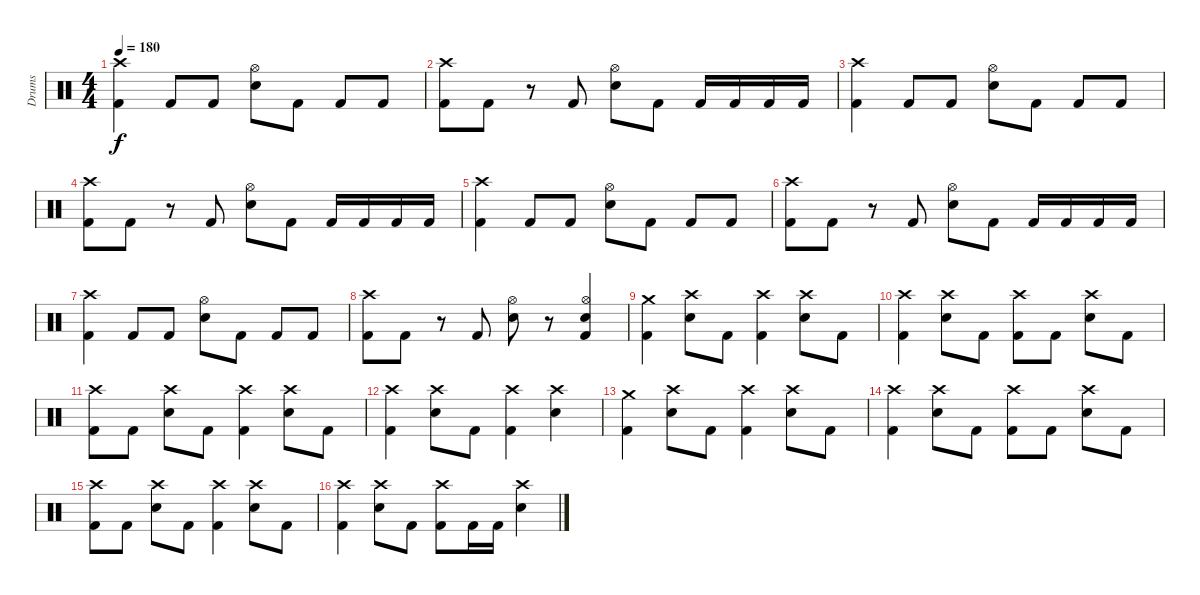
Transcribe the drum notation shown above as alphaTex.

\track ("Drums" "Drums") {instrument percussion}
\staff {score}
\articulation defaults
\ts (4 4)
\tempo 180
\clef neutral
\ks c
("Crash high (hit)" "Kick (hit) 2").4{dy f} "Kick (hit) 2".8 "Kick (hit) 2".8 ("Hi-Hat (open)" "Snare (hit) 2").8 "Kick (hit) 2".8 "Kick (hit) 2".8 "Kick (hit) 2".8 |
("Crash high (hit)" "Kick (hit) 2").8 "Kick (hit) 2".8 r.8 "Kick (hit) 2".8 ("Hi-Hat (open)" "Snare (hit) 2").8 "Kick (hit) 2".8 "Kick (hit) 2".16 "Kick (hit) 2".16 "Kick (hit) 2".16 "Kick (hit) 2".16 |
("Crash high (hit)" "Kick (hit) 2").4 "Kick (hit) 2".8 "Kick (hit) 2".8 ("Hi-Hat (open)" "Snare (hit) 2").8 "Kick (hit) 2".8 "Kick (hit) 2".8 "Kick (hit) 2".8 |
("Crash high (hit)" "Kick (hit) 2").8 "Kick (hit) 2".8 r.8 "Kick (hit) 2".8 ("Hi-Hat (open)" "Snare (hit) 2").8 "Kick (hit) 2".8 "Kick (hit) 2".16 "Kick (hit) 2".16 "Kick (hit) 2".16 "Kick (hit) 2".16 |
("Crash high (hit)" "Kick (hit) 2").4 "Kick (hit) 2".8 "Kick (hit) 2".8 ("Hi-Hat (open)" "Snare (hit) 2").8 "Kick (hit) 2".8 "Kick (hit) 2".8 "Kick (hit) 2".8 |
("Crash high (hit)" "Kick (hit) 2").8 "Kick (hit) 2".8 r.8 "Kick (hit) 2".8 ("Hi-Hat (open)" "Snare (hit) 2").8 "Kick (hit) 2".8 "Kick (hit) 2".16 "Kick (hit) 2".16 "Kick (hit) 2".16 "Kick (hit) 2".16 |
("Crash high (hit)" "Kick (hit) 2").4 "Kick (hit) 2".8 "Kick (hit) 2".8 ("Hi-Hat (open)" "Snare (hit) 2").8 "Kick (hit) 2".8 "Kick (hit) 2".8 "Kick (hit) 2".8 |
("Crash high (hit)" "Kick (hit) 2").8 "Kick (hit) 2".8 r.8 "Kick (hit) 2".8 ("Hi-Hat (open)" "Snare (hit) 2").8 r.8 ("Hi-Hat (open)" "Snare (hit) 2" "Kick (hit) 2").4 |
("Crash medium (hit)" "Kick (hit) 2").4 ("Crash high (hit)" "Snare (hit) 2").8 "Kick (hit) 2".8 ("Crash high (hit)" "Kick (hit) 2").4 ("Crash high (hit)" "Snare (hit) 2").8 "Kick (hit) 2".8 |
("Crash high (hit)" "Kick (hit) 2").4 ("Crash high (hit)" "Snare (hit) 2").8 "Kick (hit) 2".8 ("Crash high (hit)" "Kick (hit) 2").8 "Kick (hit) 2".8 ("Crash high (hit)" "Snare (hit) 2").8 "Kick (hit) 2".8 |
("Crash high (hit)" "Kick (hit) 2").8 "Kick (hit) 2".8 ("Crash high (hit)" "Snare (hit) 2").8 "Kick (hit) 2".8 ("Crash high (hit)" "Kick (hit) 2").4 ("Crash high (hit)" "Snare (hit) 2").8 "Kick (hit) 2".8 |
("Crash high (hit)" "Kick (hit) 2").4 ("Crash high (hit)" "Snare (hit) 2").8 "Kick (hit) 2".8 ("Crash high (hit)" "Kick (hit) 2").4 ("Crash high (hit)" "Snare (hit) 2").4 |
("Crash medium (hit)" "Kick (hit) 2").4 ("Crash high (hit)" "Snare (hit) 2").8 "Kick (hit) 2".8 ("Crash high (hit)" "Kick (hit) 2").4 ("Crash high (hit)" "Snare (hit) 2").8 "Kick (hit) 2".8 |
("Crash high (hit)" "Kick (hit) 2").4 ("Crash high (hit)" "Snare (hit) 2").8 "Kick (hit) 2".8 ("Crash high (hit)" "Kick (hit) 2").8 "Kick (hit) 2".8 ("Crash high (hit)" "Snare (hit) 2").8 "Kick (hit) 2".8 |
("Crash high (hit)" "Kick (hit) 2").8 "Kick (hit) 2".8 ("Crash high (hit)" "Snare (hit) 2").8 "Kick (hit) 2".8 ("Crash high (hit)" "Kick (hit) 2").4 ("Crash high (hit)" "Snare (hit) 2").8 "Kick (hit) 2".8 |
("Crash high (hit)" "Kick (hit) 2").4 ("Crash high (hit)" "Snare (hit) 2").8 "Kick (hit) 2".8 ("Crash high (hit)" "Kick (hit) 2").8 "Kick (hit) 2".16 "Kick (hit) 2".16 ("Crash high (hit)" "Snare (hit) 2").4
